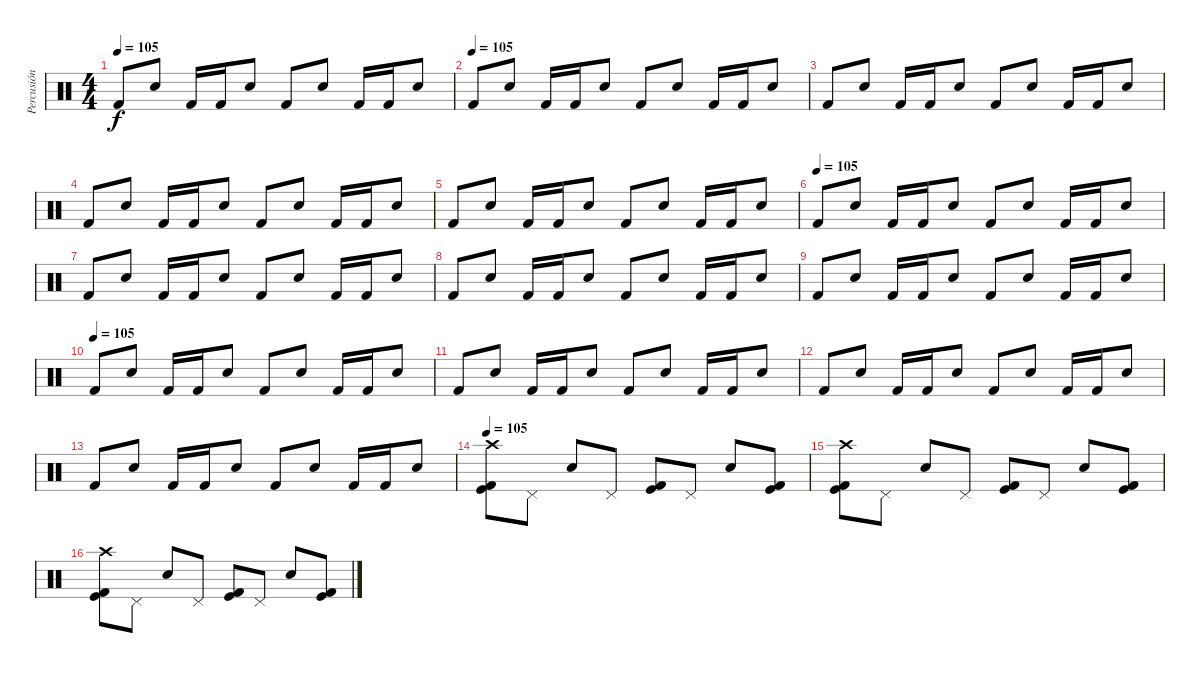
\track ("Percusión" "Percusión") {instrument percussion}
\staff {score}
\articulation defaults
\ts (4 4)
\tempo 105
\clef neutral
\ks c "Kick (hit) 2".8{dy f} "Electric Snare (hit)".8 "Kick (hit) 2".16 "Kick (hit) 2".16 "Electric Snare (hit)".8 "Kick (hit) 2".8 "Electric Snare (hit)".8 "Kick (hit) 2".16 "Kick (hit) 2".16 "Electric Snare (hit)".8
|
\tempo (105)
"Kick (hit) 2".8 "Electric Snare (hit)".8 "Kick (hit) 2".16 "Kick (hit) 2".16 "Electric Snare (hit)".8 "Kick (hit) 2".8 "Electric Snare (hit)".8 "Kick (hit) 2".16 "Kick (hit) 2".16 "Electric Snare (hit)".8 |
"Kick (hit) 2".8 "Electric Snare (hit)".8 "Kick (hit) 2".16 "Kick (hit) 2".16 "Electric Snare (hit)".8 "Kick (hit) 2".8 "Electric Snare (hit)".8 "Kick (hit) 2".16 "Kick (hit) 2".16 "Electric Snare (hit)".8 |
"Kick (hit) 2".8 "Electric Snare (hit)".8 "Kick (hit) 2".16 "Kick (hit) 2".16 "Electric Snare (hit)".8 "Kick (hit) 2".8 "Electric Snare (hit)".8 "Kick (hit) 2".16 "Kick (hit) 2".16 "Electric Snare (hit)".8 |
"Kick (hit) 2".8 "Electric Snare (hit)".8 "Kick (hit) 2".16 "Kick (hit) 2".16 "Electric Snare (hit)".8 "Kick (hit) 2".8 "Electric Snare (hit)".8 "Kick (hit) 2".16 "Kick (hit) 2".16 "Electric Snare (hit)".8 |
\tempo (105)
"Kick (hit) 2".8 "Electric Snare (hit)".8 "Kick (hit) 2".16 "Kick (hit) 2".16 "Electric Snare (hit)".8 "Kick (hit) 2".8 "Electric Snare (hit)".8 "Kick (hit) 2".16 "Kick (hit) 2".16 "Electric Snare (hit)".8 |
"Kick (hit) 2".8 "Electric Snare (hit)".8 "Kick (hit) 2".16 "Kick (hit) 2".16 "Electric Snare (hit)".8 "Kick (hit) 2".8 "Electric Snare (hit)".8 "Kick (hit) 2".16 "Kick (hit) 2".16 "Electric Snare (hit)".8 |
"Kick (hit) 2".8 "Electric Snare (hit)".8 "Kick (hit) 2".16 "Kick (hit) 2".16 "Electric Snare (hit)".8 "Kick (hit) 2".8 "Electric Snare (hit)".8 "Kick (hit) 2".16 "Kick (hit) 2".16 "Electric Snare (hit)".8 |
"Kick (hit) 2".8 "Electric Snare (hit)".8 "Kick (hit) 2".16 "Kick (hit) 2".16 "Electric Snare (hit)".8 "Kick (hit) 2".8 "Electric Snare (hit)".8 "Kick (hit) 2".16 "Kick (hit) 2".16 "Electric Snare (hit)".8 |
\tempo (105)
"Kick (hit) 2".8 "Electric Snare (hit)".8 "Kick (hit) 2".16 "Kick (hit) 2".16 "Electric Snare (hit)".8 "Kick (hit) 2".8 "Electric Snare (hit)".8 "Kick (hit) 2".16 "Kick (hit) 2".16 "Electric Snare (hit)".8 |
"Kick (hit) 2".8 "Electric Snare (hit)".8 "Kick (hit) 2".16 "Kick (hit) 2".16 "Electric Snare (hit)".8 "Kick (hit) 2".8 "Electric Snare (hit)".8 "Kick (hit) 2".16 "Kick (hit) 2".16 "Electric Snare (hit)".8 |
"Kick (hit) 2".8 "Electric Snare (hit)".8 "Kick (hit) 2".16 "Kick (hit) 2".16 "Electric Snare (hit)".8 "Kick (hit) 2".8 "Electric Snare (hit)".8 "Kick (hit) 2".16 "Kick (hit) 2".16 "Electric Snare (hit)".8 |
"Kick (hit) 2".8 "Electric Snare (hit)".8 "Kick (hit) 2".16 "Kick (hit) 2".16 "Electric Snare (hit)".8 "Kick (hit) 2".8 "Electric Snare (hit)".8 "Kick (hit) 2".16 "Kick (hit) 2".16 "Electric Snare (hit)".8 |
\tempo 105
("Kick (hit) 2" "Kick (hit)" "Crash high (hit)").8 "Pedal Hi-Hat (hit)".8 "Electric Snare (hit)".8 "Pedal Hi-Hat (hit)".8 ("Kick (hit) 2" "Kick (hit)").8 "Pedal Hi-Hat (hit)".8 "Electric Snare (hit)".8 ("Kick (hit) 2" "Kick (hit)").8 |
("Kick (hit) 2" "Kick (hit)" "Crash high (hit)").8 "Pedal Hi-Hat (hit)".8 "Electric Snare (hit)".8 "Pedal Hi-Hat (hit)".8 ("Kick (hit) 2" "Kick (hit)").8 "Pedal Hi-Hat (hit)".8 "Electric Snare (hit)".8 ("Kick (hit) 2" "Kick (hit)").8 |
("Kick (hit) 2" "Kick (hit)" "Crash high (hit)").8 "Pedal Hi-Hat (hit)".8 "Electric Snare (hit)".8 "Pedal Hi-Hat (hit)".8 ("Kick (hit) 2" "Kick (hit)").8 "Pedal Hi-Hat (hit)".8 "Electric Snare (hit)".8 ("Kick (hit) 2" "Kick (hit)").8
